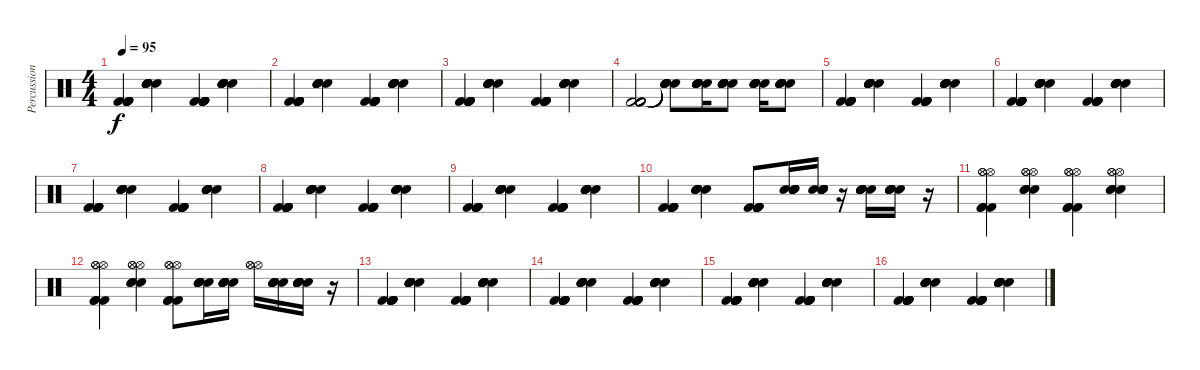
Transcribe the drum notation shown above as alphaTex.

\track ("Percussion" "Percussion") {instrument percussion}
\staff {score}
\articulation defaults
\ts (4 4)
\tempo 95
\clef neutral
\ks c
("Kick (hit) 2" "Kick (hit) 2" "Kick (hit) 2" "Kick (hit) 2" "Kick (hit) 2" "Kick (hit) 2").4{dy f} ("Electric Snare (hit)" "Electric Snare (hit)" "Electric Snare (hit)" "Electric Snare (hit)" "Electric Snare (hit)" "Electric Snare (hit)").4 ("Kick (hit) 2" "Kick (hit) 2" "Kick (hit) 2" "Kick (hit) 2" "Kick (hit) 2" "Kick (hit) 2").4 ("Electric Snare (hit)" "Electric Snare (hit)" "Electric Snare (hit)" "Electric Snare (hit)" "Electric Snare (hit)" "Electric Snare (hit)").4 |
("Kick (hit) 2" "Kick (hit) 2" "Kick (hit) 2" "Kick (hit) 2" "Kick (hit) 2" "Kick (hit) 2").4 ("Electric Snare (hit)" "Electric Snare (hit)" "Electric Snare (hit)" "Electric Snare (hit)" "Electric Snare (hit)" "Electric Snare (hit)").4 ("Kick (hit) 2" "Kick (hit) 2" "Kick (hit) 2" "Kick (hit) 2" "Kick (hit) 2" "Kick (hit) 2").4 ("Electric Snare (hit)" "Electric Snare (hit)" "Electric Snare (hit)" "Electric Snare (hit)" "Electric Snare (hit)" "Electric Snare (hit)").4 |
("Kick (hit) 2" "Kick (hit) 2" "Kick (hit) 2" "Kick (hit) 2" "Kick (hit) 2" "Kick (hit) 2").4 ("Electric Snare (hit)" "Electric Snare (hit)" "Electric Snare (hit)" "Electric Snare (hit)" "Electric Snare (hit)" "Electric Snare (hit)").4 ("Kick (hit) 2" "Kick (hit) 2" "Kick (hit) 2" "Kick (hit) 2" "Kick (hit) 2" "Kick (hit) 2").4 ("Electric Snare (hit)" "Electric Snare (hit)" "Electric Snare (hit)" "Electric Snare (hit)" "Electric Snare (hit)" "Electric Snare (hit)").4 |
("Kick (hit) 2" "Kick (hit) 2" "Kick (hit) 2" "Kick (hit) 2" "Kick (hit) 2" "Kick (hit) 2").2 ("Snare (hit)"{t} "Snare (hit)"{t} "Snare (hit)"{t} "Snare (hit)"{t} "Snare (hit)"{t} "Snare (hit)"{t}).8 ("Electric Snare (hit)" "Electric Snare (hit)" "Electric Snare (hit)" "Electric Snare (hit)" "Electric Snare (hit)" "Electric Snare (hit)").16 ("Electric Snare (hit)" "Electric Snare (hit)" "Electric Snare (hit)" "Electric Snare (hit)" "Electric Snare (hit)" "Electric Snare (hit)").8 ("Electric Snare (hit)" "Electric Snare (hit)" "Electric Snare (hit)" "Electric Snare (hit)" "Electric Snare (hit)" "Electric Snare (hit)").16 ("Electric Snare (hit)" "Electric Snare (hit)" "Electric Snare (hit)" "Electric Snare (hit)" "Electric Snare (hit)" "Electric Snare (hit)").8 |
("Kick (hit) 2" "Kick (hit) 2" "Kick (hit) 2" "Kick (hit) 2" "Kick (hit) 2" "Kick (hit) 2").4 ("Electric Snare (hit)" "Electric Snare (hit)" "Electric Snare (hit)" "Electric Snare (hit)" "Electric Snare (hit)" "Electric Snare (hit)").4 ("Kick (hit) 2" "Kick (hit) 2" "Kick (hit) 2" "Kick (hit) 2" "Kick (hit) 2" "Kick (hit) 2").4 ("Electric Snare (hit)" "Electric Snare (hit)" "Electric Snare (hit)" "Electric Snare (hit)" "Electric Snare (hit)" "Electric Snare (hit)").4 |
("Kick (hit) 2" "Kick (hit) 2" "Kick (hit) 2" "Kick (hit) 2" "Kick (hit) 2" "Kick (hit) 2").4 ("Electric Snare (hit)" "Electric Snare (hit)" "Electric Snare (hit)" "Electric Snare (hit)" "Electric Snare (hit)" "Electric Snare (hit)").4 ("Kick (hit) 2" "Kick (hit) 2" "Kick (hit) 2" "Kick (hit) 2" "Kick (hit) 2" "Kick (hit) 2").4 ("Electric Snare (hit)" "Electric Snare (hit)" "Electric Snare (hit)" "Electric Snare (hit)" "Electric Snare (hit)" "Electric Snare (hit)").4 |
("Kick (hit) 2" "Kick (hit) 2" "Kick (hit) 2" "Kick (hit) 2" "Kick (hit) 2" "Kick (hit) 2").4 ("Electric Snare (hit)" "Electric Snare (hit)" "Electric Snare (hit)" "Electric Snare (hit)" "Electric Snare (hit)" "Electric Snare (hit)").4 ("Kick (hit) 2" "Kick (hit) 2" "Kick (hit) 2" "Kick (hit) 2" "Kick (hit) 2" "Kick (hit) 2").4 ("Electric Snare (hit)" "Electric Snare (hit)" "Electric Snare (hit)" "Electric Snare (hit)" "Electric Snare (hit)" "Electric Snare (hit)").4 |
("Kick (hit) 2" "Kick (hit) 2" "Kick (hit) 2" "Kick (hit) 2" "Kick (hit) 2" "Kick (hit) 2").4 ("Electric Snare (hit)" "Electric Snare (hit)" "Electric Snare (hit)" "Electric Snare (hit)" "Electric Snare (hit)" "Electric Snare (hit)").4 ("Kick (hit) 2" "Kick (hit) 2" "Kick (hit) 2" "Kick (hit) 2" "Kick (hit) 2" "Kick (hit) 2").4 ("Electric Snare (hit)" "Electric Snare (hit)" "Electric Snare (hit)" "Electric Snare (hit)" "Electric Snare (hit)" "Electric Snare (hit)").4 |
("Kick (hit) 2" "Kick (hit) 2" "Kick (hit) 2" "Kick (hit) 2" "Kick (hit) 2" "Kick (hit) 2").4 ("Electric Snare (hit)" "Electric Snare (hit)" "Electric Snare (hit)" "Electric Snare (hit)" "Electric Snare (hit)" "Electric Snare (hit)").4 ("Kick (hit) 2" "Kick (hit) 2" "Kick (hit) 2" "Kick (hit) 2" "Kick (hit) 2" "Kick (hit) 2").4 ("Electric Snare (hit)" "Electric Snare (hit)" "Electric Snare (hit)" "Electric Snare (hit)" "Electric Snare (hit)" "Electric Snare (hit)").4 |
("Kick (hit) 2" "Kick (hit) 2" "Kick (hit) 2" "Kick (hit) 2" "Kick (hit) 2" "Kick (hit) 2").4 ("Electric Snare (hit)" "Electric Snare (hit)" "Electric Snare (hit)" "Electric Snare (hit)" "Electric Snare (hit)" "Electric Snare (hit)").4 ("Kick (hit) 2" "Kick (hit) 2" "Kick (hit) 2" "Kick (hit) 2" "Kick (hit) 2" "Kick (hit) 2").8 ("Electric Snare (hit)" "Electric Snare (hit)" "Electric Snare (hit)" "Electric Snare (hit)" "Electric Snare (hit)" "Electric Snare (hit)").16 ("Electric Snare (hit)" "Electric Snare (hit)" "Electric Snare (hit)" "Electric Snare (hit)" "Electric Snare (hit)" "Electric Snare (hit)").16 r.16 ("Electric Snare (hit)" "Electric Snare (hit)" "Electric Snare (hit)" "Electric Snare (hit)" "Electric Snare (hit)" "Electric Snare (hit)").16 ("Electric Snare (hit)" "Electric Snare (hit)" "Electric Snare (hit)" "Electric Snare (hit)" "Electric Snare (hit)" "Electric Snare (hit)").16 r.16 |
("Hi-Hat (open)" "Kick (hit) 2" "Hi-Hat (open)" "Kick (hit) 2" "Hi-Hat (open)" "Kick (hit) 2").4 ("Hi-Hat (open)" "Electric Snare (hit)" "Hi-Hat (open)" "Electric Snare (hit)" "Hi-Hat (open)" "Electric Snare (hit)").4 ("Hi-Hat (open)" "Kick (hit) 2" "Hi-Hat (open)" "Kick (hit) 2" "Hi-Hat (open)" "Kick (hit) 2").4 ("Hi-Hat (open)" "Electric Snare (hit)" "Hi-Hat (open)" "Electric Snare (hit)" "Hi-Hat (open)" "Electric Snare (hit)").4 |
("Hi-Hat (open)" "Kick (hit) 2" "Hi-Hat (open)" "Kick (hit) 2" "Hi-Hat (open)" "Kick (hit) 2").4 ("Hi-Hat (open)" "Electric Snare (hit)" "Hi-Hat (open)" "Electric Snare (hit)" "Hi-Hat (open)" "Electric Snare (hit)").4 ("Hi-Hat (open)" "Kick (hit) 2" "Hi-Hat (open)" "Kick (hit) 2" "Hi-Hat (open)" "Kick (hit) 2").8 ("Electric Snare (hit)" "Electric Snare (hit)" "Electric Snare (hit)" "Electric Snare (hit)" "Electric Snare (hit)" "Electric Snare (hit)").16 ("Electric Snare (hit)" "Electric Snare (hit)" "Electric Snare (hit)" "Electric Snare (hit)" "Electric Snare (hit)" "Electric Snare (hit)").16 ("Hi-Hat (open)" "Hi-Hat (open)" "Hi-Hat (open)").16 ("Electric Snare (hit)" "Electric Snare (hit)" "Electric Snare (hit)" "Electric Snare (hit)" "Electric Snare (hit)" "Electric Snare (hit)").16 ("Electric Snare (hit)" "Electric Snare (hit)" "Electric Snare (hit)" "Electric Snare (hit)" "Electric Snare (hit)" "Electric Snare (hit)").16 r.16 |
("Kick (hit) 2" "Kick (hit) 2" "Kick (hit) 2" "Kick (hit) 2" "Kick (hit) 2" "Kick (hit) 2").4 ("Electric Snare (hit)" "Electric Snare (hit)" "Electric Snare (hit)" "Electric Snare (hit)" "Electric Snare (hit)" "Electric Snare (hit)").4 ("Kick (hit) 2" "Kick (hit) 2" "Kick (hit) 2" "Kick (hit) 2" "Kick (hit) 2" "Kick (hit) 2").4 ("Electric Snare (hit)" "Electric Snare (hit)" "Electric Snare (hit)" "Electric Snare (hit)" "Electric Snare (hit)" "Electric Snare (hit)").4 |
("Kick (hit) 2" "Kick (hit) 2" "Kick (hit) 2" "Kick (hit) 2" "Kick (hit) 2" "Kick (hit) 2").4 ("Electric Snare (hit)" "Electric Snare (hit)" "Electric Snare (hit)" "Electric Snare (hit)" "Electric Snare (hit)" "Electric Snare (hit)").4 ("Kick (hit) 2" "Kick (hit) 2" "Kick (hit) 2" "Kick (hit) 2" "Kick (hit) 2" "Kick (hit) 2").4 ("Electric Snare (hit)" "Electric Snare (hit)" "Electric Snare (hit)" "Electric Snare (hit)" "Electric Snare (hit)" "Electric Snare (hit)").4 |
("Kick (hit) 2" "Kick (hit) 2" "Kick (hit) 2" "Kick (hit) 2" "Kick (hit) 2" "Kick (hit) 2").4 ("Electric Snare (hit)" "Electric Snare (hit)" "Electric Snare (hit)" "Electric Snare (hit)" "Electric Snare (hit)" "Electric Snare (hit)").4 ("Kick (hit) 2" "Kick (hit) 2" "Kick (hit) 2" "Kick (hit) 2" "Kick (hit) 2" "Kick (hit) 2").4 ("Electric Snare (hit)" "Electric Snare (hit)" "Electric Snare (hit)" "Electric Snare (hit)" "Electric Snare (hit)" "Electric Snare (hit)").4 |
("Kick (hit) 2" "Kick (hit) 2" "Kick (hit) 2" "Kick (hit) 2" "Kick (hit) 2" "Kick (hit) 2").4 ("Electric Snare (hit)" "Electric Snare (hit)" "Electric Snare (hit)" "Electric Snare (hit)" "Electric Snare (hit)" "Electric Snare (hit)").4 ("Kick (hit) 2" "Kick (hit) 2" "Kick (hit) 2" "Kick (hit) 2" "Kick (hit) 2" "Kick (hit) 2").4 ("Electric Snare (hit)" "Electric Snare (hit)" "Electric Snare (hit)" "Electric Snare (hit)" "Electric Snare (hit)" "Electric Snare (hit)").4
